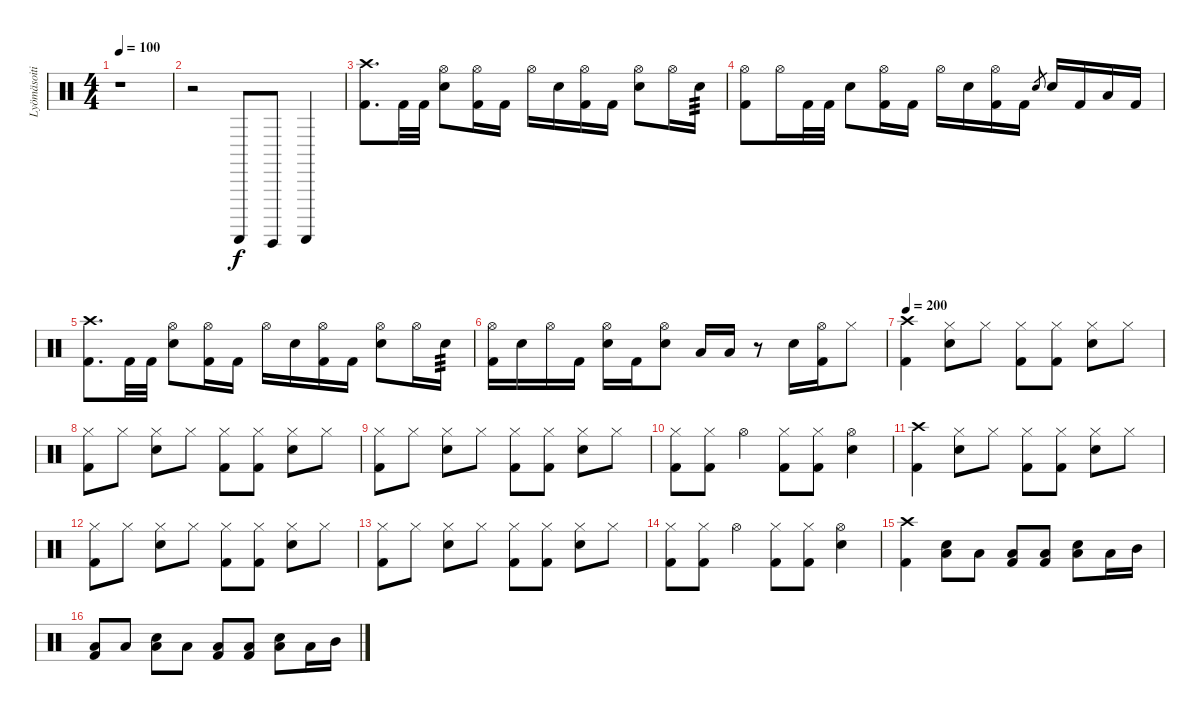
\track ("Lyömäsoitin" "Lyömäsoiti") {instrument percussion}
\staff {score}
\articulation defaults
\ts (4 4)
\tempo 100
\clef neutral
\ks c
r.1{dy f} |
r.2 "Guiro (scrap-return)".8 "Guiro (hit)".8 "Guiro (scrap-return)".4 |
("Crash high (hit)" "Kick (hit) 2").8{d} "Kick (hit) 2".32 "Kick (hit) 2".32 ("Hi-Hat (open)" "Snare (hit) 2").8 ("Hi-Hat (open)" "Kick (hit) 2").16 "Kick (hit) 2".16 "Hi-Hat (open)".16 "Snare (hit) 2".16 ("Hi-Hat (open)" "Kick (hit) 2").16 "Kick (hit) 2".16 ("Hi-Hat (open)" "Snare (hit) 2").8 "Hi-Hat (open)".16 "Snare (hit) 2".16{tp 3} |
("Hi-Hat (open)" "Kick (hit) 2").8 "Hi-Hat (open)".16 "Kick (hit) 2".32 "Kick (hit) 2".32 "Snare (hit) 2".8 ("Hi-Hat (open)" "Kick (hit) 2").16 "Kick (hit) 2".16 "Hi-Hat (open)".16 "Snare (hit) 2".16 ("Hi-Hat (open)" "Kick (hit) 2").16 "Kick (hit) 2".16 "Snare (hit) 2".8{gr} "Snare (hit) 2".16 "Kick (hit) 2".16 "Low Tom (hit)".16 "Kick (hit) 2".16 |
("Crash high (hit)" "Kick (hit) 2").8{d} "Kick (hit) 2".32 "Kick (hit) 2".32 ("Hi-Hat (open)" "Snare (hit) 2").8 ("Hi-Hat (open)" "Kick (hit) 2").16 "Kick (hit) 2".16 "Hi-Hat (open)".16 "Snare (hit) 2".16 ("Hi-Hat (open)" "Kick (hit) 2").16 "Kick (hit) 2".16 ("Hi-Hat (open)" "Snare (hit) 2").8 "Hi-Hat (open)".16 "Snare (hit) 2".16{tp 3} |
("Hi-Hat (open)" "Kick (hit) 2").16 "Snare (hit) 2".16 "Hi-Hat (open)".16 "Kick (hit) 2".16 ("Hi-Hat (open)" "Snare (hit) 2").16 "Kick (hit) 2".16 ("Hi-Hat (open)" "Snare (hit) 2").8 "Low Tom (hit)".16 "Low Tom (hit)".16 r.8 "Snare (hit) 2".16 ("Hi-Hat (open)" "Kick (hit) 2").16 "Hi-Hat (closed)".8 |
\tempo 200
("Crash high (hit)" "Kick (hit) 2").4 ("Hi-Hat (closed)" "Snare (hit) 2").8 "Hi-Hat (closed)".8 ("Hi-Hat (closed)" "Kick (hit) 2").8 ("Hi-Hat (closed)" "Kick (hit) 2").8 ("Hi-Hat (closed)" "Snare (hit) 2").8 "Hi-Hat (closed)".8 |
("Hi-Hat (closed)" "Kick (hit) 2").8 "Hi-Hat (closed)".8 ("Hi-Hat (closed)" "Snare (hit) 2").8 "Hi-Hat (closed)".8 ("Hi-Hat (closed)" "Kick (hit) 2").8 ("Hi-Hat (closed)" "Kick (hit) 2").8 ("Hi-Hat (closed)" "Snare (hit) 2").8 "Hi-Hat (closed)".8 |
("Hi-Hat (closed)" "Kick (hit) 2").8 "Hi-Hat (closed)".8 ("Hi-Hat (closed)" "Snare (hit) 2").8 "Hi-Hat (closed)".8 ("Hi-Hat (closed)" "Kick (hit) 2").8 ("Hi-Hat (closed)" "Kick (hit) 2").8 ("Hi-Hat (closed)" "Snare (hit) 2").8 "Hi-Hat (closed)".8 |
("Hi-Hat (closed)" "Kick (hit) 2").8 ("Hi-Hat (closed)" "Kick (hit) 2").8 "Hi-Hat (open)".4 ("Hi-Hat (closed)" "Kick (hit) 2").8 ("Hi-Hat (closed)" "Kick (hit) 2").8 ("Hi-Hat (open)" "Snare (hit) 2").4 |
("Crash high (hit)" "Kick (hit) 2").4 ("Hi-Hat (closed)" "Snare (hit) 2").8 "Hi-Hat (closed)".8 ("Hi-Hat (closed)" "Kick (hit) 2").8 ("Hi-Hat (closed)" "Kick (hit) 2").8 ("Hi-Hat (closed)" "Snare (hit) 2").8 "Hi-Hat (closed)".8 |
("Hi-Hat (closed)" "Kick (hit) 2").8 "Hi-Hat (closed)".8 ("Hi-Hat (closed)" "Snare (hit) 2").8 "Hi-Hat (closed)".8 ("Hi-Hat (closed)" "Kick (hit) 2").8 ("Hi-Hat (closed)" "Kick (hit) 2").8 ("Hi-Hat (closed)" "Snare (hit) 2").8 "Hi-Hat (closed)".8 |
("Hi-Hat (closed)" "Kick (hit) 2").8 "Hi-Hat (closed)".8 ("Hi-Hat (closed)" "Snare (hit) 2").8 "Hi-Hat (closed)".8 ("Hi-Hat (closed)" "Kick (hit) 2").8 ("Hi-Hat (closed)" "Kick (hit) 2").8 ("Hi-Hat (closed)" "Snare (hit) 2").8 "Hi-Hat (closed)".8 |
("Hi-Hat (closed)" "Kick (hit) 2").8 ("Hi-Hat (closed)" "Kick (hit) 2").8 "Hi-Hat (open)".4 ("Hi-Hat (closed)" "Kick (hit) 2").8 ("Hi-Hat (closed)" "Kick (hit) 2").8 ("Hi-Hat (open)" "Snare (hit) 2").4 |
("Crash high (hit)" "Kick (hit) 2").4 ("Snare (hit) 2" "Low Tom (hit)").8 "Low Tom (hit)".8 ("Low Tom (hit)" "Kick (hit) 2").8 ("Low Tom (hit)" "Kick (hit) 2").8 ("Snare (hit) 2" "Low Tom (hit)").8 "Low Tom (hit)".16 "Mid Tom (hit)".16 |
("Low Tom (hit)" "Kick (hit) 2").8 "Low Tom (hit)".8 ("Snare (hit) 2" "Low Tom (hit)").8 "Low Tom (hit)".8 ("Low Tom (hit)" "Kick (hit) 2").8 ("Low Tom (hit)" "Kick (hit) 2").8 ("Low Tom (hit)" "Snare (hit) 2").8 "Low Tom (hit)".16 "Mid Tom (hit)".16
